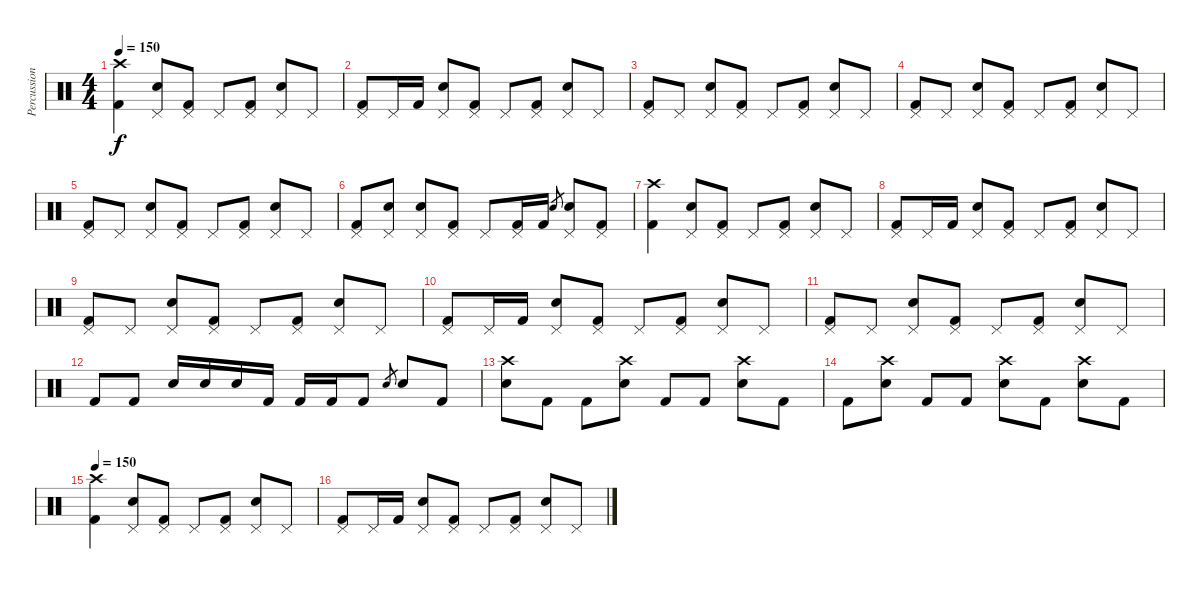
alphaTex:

\track ("Percussion" "Percussion") {instrument percussion}
\staff {score}
\articulation defaults
\ts (4 4)
\tempo 150
\clef neutral
\ks c
("Crash high (hit)" "Kick (hit) 2").4{dy f} ("Pedal Hi-Hat (hit)" "Snare (hit) 2").8 ("Pedal Hi-Hat (hit)" "Kick (hit) 2").8 "Pedal Hi-Hat (hit)".8 ("Pedal Hi-Hat (hit)" "Kick (hit) 2").8 ("Pedal Hi-Hat (hit)" "Snare (hit) 2").8 "Pedal Hi-Hat (hit)".8 |
("Pedal Hi-Hat (hit)" "Kick (hit) 2").8 "Pedal Hi-Hat (hit)".16 "Kick (hit) 2".16 ("Pedal Hi-Hat (hit)" "Snare (hit) 2").8 ("Pedal Hi-Hat (hit)" "Kick (hit) 2").8 "Pedal Hi-Hat (hit)".8 ("Pedal Hi-Hat (hit)" "Kick (hit) 2").8 ("Pedal Hi-Hat (hit)" "Snare (hit) 2").8 "Pedal Hi-Hat (hit)".8 |
("Pedal Hi-Hat (hit)" "Kick (hit) 2").8 "Pedal Hi-Hat (hit)".8 ("Pedal Hi-Hat (hit)" "Snare (hit) 2").8 ("Pedal Hi-Hat (hit)" "Kick (hit) 2").8 "Pedal Hi-Hat (hit)".8 ("Pedal Hi-Hat (hit)" "Kick (hit) 2").8 ("Pedal Hi-Hat (hit)" "Snare (hit) 2").8 "Pedal Hi-Hat (hit)".8 |
("Pedal Hi-Hat (hit)" "Kick (hit) 2").8 "Pedal Hi-Hat (hit)".8 ("Pedal Hi-Hat (hit)" "Snare (hit) 2").8 ("Pedal Hi-Hat (hit)" "Kick (hit) 2").8 "Pedal Hi-Hat (hit)".8 ("Pedal Hi-Hat (hit)" "Kick (hit) 2").8 ("Pedal Hi-Hat (hit)" "Snare (hit) 2").8 "Pedal Hi-Hat (hit)".8 |
("Pedal Hi-Hat (hit)" "Kick (hit) 2").8 "Pedal Hi-Hat (hit)".8 ("Pedal Hi-Hat (hit)" "Snare (hit) 2").8 ("Pedal Hi-Hat (hit)" "Kick (hit) 2").8 "Pedal Hi-Hat (hit)".8 ("Pedal Hi-Hat (hit)" "Kick (hit) 2").8 ("Pedal Hi-Hat (hit)" "Snare (hit) 2").8 "Pedal Hi-Hat (hit)".8 |
("Pedal Hi-Hat (hit)" "Kick (hit) 2").8 ("Pedal Hi-Hat (hit)" "Snare (hit) 2").8 ("Pedal Hi-Hat (hit)" "Snare (hit) 2").8 ("Pedal Hi-Hat (hit)" "Kick (hit) 2").8 "Pedal Hi-Hat (hit)".8 ("Pedal Hi-Hat (hit)" "Kick (hit) 2").16 "Kick (hit) 2".16 "Snare (hit) 2".8{gr} ("Pedal Hi-Hat (hit)" "Snare (hit) 2").8 ("Pedal Hi-Hat (hit)" "Kick (hit) 2").8 |
("Crash high (hit)" "Kick (hit) 2").4 ("Pedal Hi-Hat (hit)" "Snare (hit) 2").8 ("Pedal Hi-Hat (hit)" "Kick (hit) 2").8 "Pedal Hi-Hat (hit)".8 ("Pedal Hi-Hat (hit)" "Kick (hit) 2").8 ("Pedal Hi-Hat (hit)" "Snare (hit) 2").8 "Pedal Hi-Hat (hit)".8 |
("Pedal Hi-Hat (hit)" "Kick (hit) 2").8 "Pedal Hi-Hat (hit)".16 "Kick (hit) 2".16 ("Pedal Hi-Hat (hit)" "Snare (hit) 2").8 ("Pedal Hi-Hat (hit)" "Kick (hit) 2").8 "Pedal Hi-Hat (hit)".8 ("Pedal Hi-Hat (hit)" "Kick (hit) 2").8 ("Pedal Hi-Hat (hit)" "Snare (hit) 2").8 "Pedal Hi-Hat (hit)".8 |
("Pedal Hi-Hat (hit)" "Kick (hit) 2").8 "Pedal Hi-Hat (hit)".8 ("Pedal Hi-Hat (hit)" "Snare (hit) 2").8 ("Pedal Hi-Hat (hit)" "Kick (hit) 2").8 "Pedal Hi-Hat (hit)".8 ("Pedal Hi-Hat (hit)" "Kick (hit) 2").8 ("Pedal Hi-Hat (hit)" "Snare (hit) 2").8 "Pedal Hi-Hat (hit)".8 |
("Pedal Hi-Hat (hit)" "Kick (hit) 2").8 "Pedal Hi-Hat (hit)".16 "Kick (hit) 2".16 ("Pedal Hi-Hat (hit)" "Snare (hit) 2").8 ("Pedal Hi-Hat (hit)" "Kick (hit) 2").8 "Pedal Hi-Hat (hit)".8 ("Pedal Hi-Hat (hit)" "Kick (hit) 2").8 ("Pedal Hi-Hat (hit)" "Snare (hit) 2").8 "Pedal Hi-Hat (hit)".8 |
("Pedal Hi-Hat (hit)" "Kick (hit) 2").8 "Pedal Hi-Hat (hit)".8 ("Pedal Hi-Hat (hit)" "Snare (hit) 2").8 ("Pedal Hi-Hat (hit)" "Kick (hit) 2").8 "Pedal Hi-Hat (hit)".8 ("Pedal Hi-Hat (hit)" "Kick (hit) 2").8 ("Pedal Hi-Hat (hit)" "Snare (hit) 2").8 "Pedal Hi-Hat (hit)".8 |
"Kick (hit) 2".8 "Kick (hit) 2".8 "Snare (hit) 2".16 "Snare (hit) 2".16 "Snare (hit) 2".16 "Kick (hit) 2".16 "Kick (hit) 2".16 "Kick (hit) 2".16 "Kick (hit) 2".8 "Snare (hit) 2".8{gr} "Snare (hit) 2".8 "Kick (hit) 2".8 |
("Crash high (hit)" "Snare (hit) 2").8 "Kick (hit) 2".8 "Kick (hit) 2".8 ("Crash high (hit)" "Snare (hit) 2").8 "Kick (hit) 2".8 "Kick (hit) 2".8 ("Crash high (hit)" "Snare (hit) 2").8 "Kick (hit) 2".8 |
"Kick (hit) 2".8 ("Crash high (hit)" "Snare (hit) 2").8 "Kick (hit) 2".8 "Kick (hit) 2".8 ("Crash high (hit)" "Snare (hit) 2").8 "Kick (hit) 2".8 ("Crash high (hit)" "Snare (hit) 2").8 "Kick (hit) 2".8 |
\tempo 150
("Crash high (hit)" "Kick (hit) 2").4 ("Pedal Hi-Hat (hit)" "Snare (hit) 2").8 ("Pedal Hi-Hat (hit)" "Kick (hit) 2").8 "Pedal Hi-Hat (hit)".8 ("Pedal Hi-Hat (hit)" "Kick (hit) 2").8 ("Pedal Hi-Hat (hit)" "Snare (hit) 2").8 "Pedal Hi-Hat (hit)".8 |
("Pedal Hi-Hat (hit)" "Kick (hit) 2").8 "Pedal Hi-Hat (hit)".16 "Kick (hit) 2".16 ("Pedal Hi-Hat (hit)" "Snare (hit) 2").8 ("Pedal Hi-Hat (hit)" "Kick (hit) 2").8 "Pedal Hi-Hat (hit)".8 ("Pedal Hi-Hat (hit)" "Kick (hit) 2").8 ("Pedal Hi-Hat (hit)" "Snare (hit) 2").8 "Pedal Hi-Hat (hit)".8
